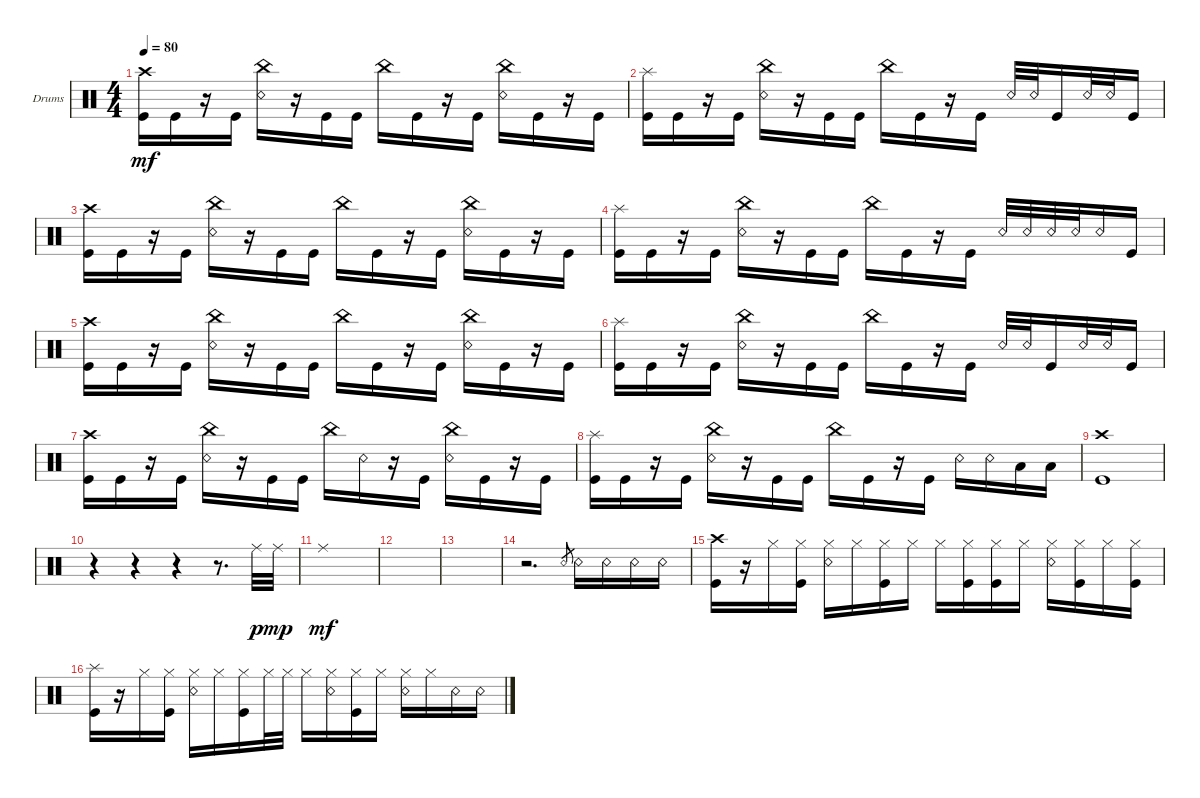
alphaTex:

\defaultSystemsLayout 4
\bracketExtendMode groupsimilarinstruments
\firstSystemTrackNameOrientation horizontal
\otherSystemsTrackNameOrientation horizontal
\track ("Drumkit" "Drums") {instrument percussion}
\staff {score}
\articulation defaults
\ts (4 4)
\tempo 80
\clef neutral
\ks c
("Kick (hit)" "Crash high (hit)").16{dy mf} "Kick (hit)".16 r.16 "Kick (hit)".16 ("Snare (rim shot)" "China (hit)").16 r.16 "Kick (hit)".16 "Kick (hit)".16 "China (hit)".16 "Kick (hit)".16 r.16 "Kick (hit)".16 ("Snare (rim shot)" "China (hit)").16 "Kick (hit)".16 r.16 "Kick (hit)".16 |
("Kick (hit)" "Splash (hit)").16 "Kick (hit)".16 r.16 "Kick (hit)".16 ("Snare (rim shot)" "China (hit)").16 r.16 "Kick (hit)".16 "Kick (hit)".16 "China (hit)".16 "Kick (hit)".16 r.16 "Kick (hit)".16 "Snare (rim shot)".32 "Snare (rim shot)".32 "Kick (hit)".16 "Snare (rim shot)".32 "Snare (rim shot)".32 "Kick (hit)".16 |
("Kick (hit)" "Crash high (hit)").16 "Kick (hit)".16 r.16 "Kick (hit)".16 ("Snare (rim shot)" "China (hit)").16 r.16 "Kick (hit)".16 "Kick (hit)".16 "China (hit)".16 "Kick (hit)".16 r.16 "Kick (hit)".16 ("Snare (rim shot)" "China (hit)").16 "Kick (hit)".16 r.16 "Kick (hit)".16 |
("Kick (hit)" "Splash (hit)").16 "Kick (hit)".16 r.16 "Kick (hit)".16 ("Snare (rim shot)" "China (hit)").16 r.16 "Kick (hit)".16 "Kick (hit)".16 "China (hit)".16 "Kick (hit)".16 r.16 "Kick (hit)".16 "Snare (rim shot)".32 "Snare (rim shot)".32 "Snare (rim shot)".32 "Snare (rim shot)".32 "Snare (rim shot)".16 "Kick (hit)".16 |
("Kick (hit)" "Crash high (hit)").16 "Kick (hit)".16 r.16 "Kick (hit)".16 ("Snare (rim shot)" "China (hit)").16 r.16 "Kick (hit)".16 "Kick (hit)".16 "China (hit)".16 "Kick (hit)".16 r.16 "Kick (hit)".16 ("Snare (rim shot)" "China (hit)").16 "Kick (hit)".16 r.16 "Kick (hit)".16 |
("Kick (hit)" "Splash (hit)").16 "Kick (hit)".16 r.16 "Kick (hit)".16 ("Snare (rim shot)" "China (hit)").16 r.16 "Kick (hit)".16 "Kick (hit)".16 "China (hit)".16 "Kick (hit)".16 r.16 "Kick (hit)".16 "Snare (rim shot)".32 "Snare (rim shot)".32 "Kick (hit)".16 "Snare (rim shot)".32 "Snare (rim shot)".32 "Kick (hit)".16 |
("Kick (hit)" "Crash high (hit)").16 "Kick (hit)".16 r.16 "Kick (hit)".16 ("Snare (rim shot)" "China (hit)").16 r.16 "Kick (hit)".16 "Kick (hit)".16 "China (hit)".16 "Snare (rim shot)".16 r.16 "Kick (hit)".16 ("Snare (rim shot)" "China (hit)").16 "Kick (hit)".16 r.16 "Kick (hit)".16 |
("Kick (hit)" "Splash (hit)").16 "Kick (hit)".16 r.16 "Kick (hit)".16 ("Snare (rim shot)" "China (hit)").16 r.16 "Kick (hit)".16 "Kick (hit)".16 "China (hit)".16 "Kick (hit)".16 r.16 "Kick (hit)".16 "Snare (rim shot)".16 "Snare (rim shot)".16 "Low Tom (hit)".16 "Low Tom (hit)".16 |
("Kick (hit)" "Crash high (hit)").1 |
r.4 r.4 r.4 r.8{d} "Ride (middle)".32{dy p} "Ride (middle)".32{dy mp} |
"Ride (middle)".1{dy mf} |
|
|
r.2{d} "Snare (rim shot)".8{gr} "Snare (rim shot)".16 "Snare (rim shot)".16 "Snare (rim shot)".16 "Snare (rim shot)".16 |
("Kick (hit)" "Crash high (hit)").16 r.16 "Hi-Hat (closed)".16 ("Hi-Hat (closed)" "Kick (hit)").16 ("Hi-Hat (closed)" "Snare (rim shot)").16 "Hi-Hat (closed)".16 ("Hi-Hat (closed)" "Kick (hit)").16 "Hi-Hat (closed)".16 "Hi-Hat (closed)".16 ("Hi-Hat (closed)" "Kick (hit)").16 ("Hi-Hat (closed)" "Kick (hit)").16 "Hi-Hat (closed)".16 ("Hi-Hat (closed)" "Snare (rim shot)").16 ("Hi-Hat (closed)" "Kick (hit)").16 "Hi-Hat (closed)".16 ("Hi-Hat (closed)" "Kick (hit)").16 |
("Kick (hit)" "Splash (hit)").16 r.16 "Hi-Hat (closed)".16 ("Hi-Hat (closed)" "Kick (hit)").16 ("Hi-Hat (closed)" "Snare (rim shot)").16 "Hi-Hat (closed)".16 ("Hi-Hat (closed)" "Kick (hit)").16 "Hi-Hat (closed)".32 "Hi-Hat (closed)".32 "Hi-Hat (closed)".16 ("Hi-Hat (closed)" "Snare (rim shot)").16 ("Hi-Hat (closed)" "Kick (hit)").16 "Hi-Hat (closed)".16 ("Hi-Hat (closed)" "Snare (rim shot)").16 "Hi-Hat (closed)".16 "Snare (rim shot)".16 "Snare (rim shot)".16
